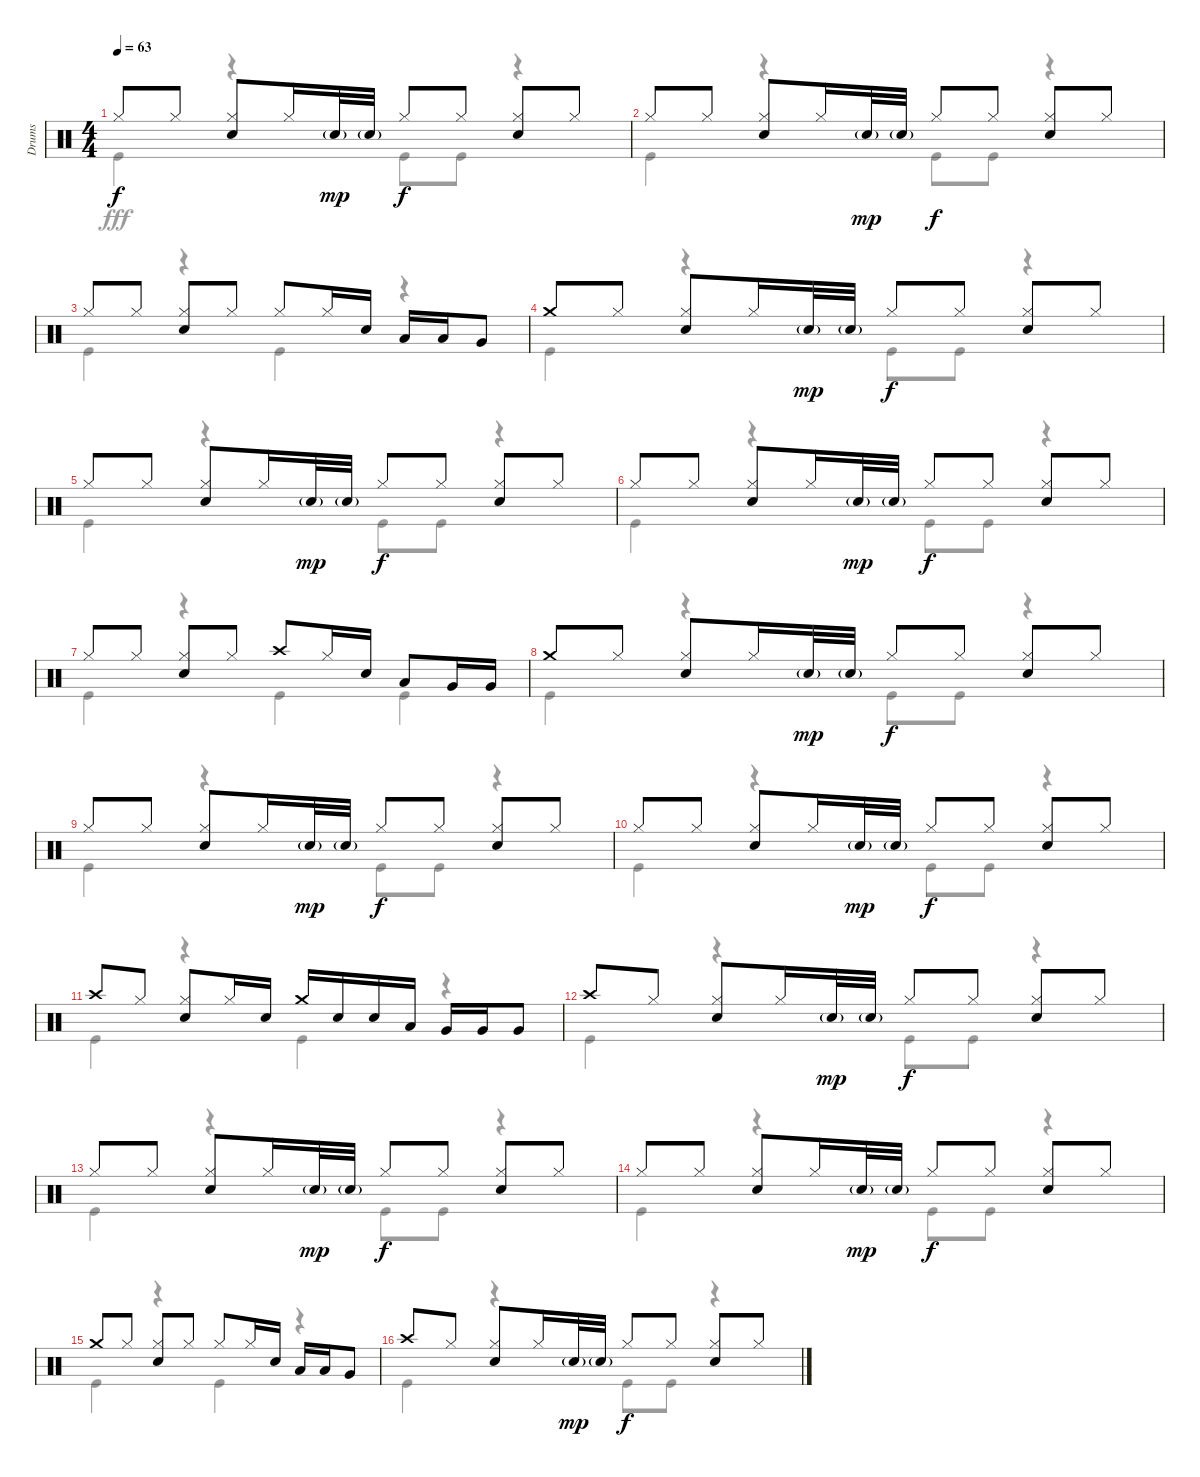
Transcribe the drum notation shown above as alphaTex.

\track ("Drums" "Drums") {instrument percussion}
\staff {score}
\articulation defaults
\voice
\ts (4 4)
\tempo 63
\clef neutral
\ks c "Hi-Hat (closed)".8{dy f} "Hi-Hat (closed)".8
("Hi-Hat (closed)" "Snare (hit) 2").8 "Hi-Hat (closed)".16 "Snare (hit) 2"{g}.32{dy mp} "Snare (hit) 2"{g}.32 "Hi-Hat (closed)".8{dy f} "Hi-Hat (closed)".8 ("Hi-Hat (closed)" "Snare (hit) 2").8 "Hi-Hat (closed)".8 |
"Hi-Hat (closed)".8 "Hi-Hat (closed)".8 ("Hi-Hat (closed)" "Snare (hit) 2").8 "Hi-Hat (closed)".16 "Snare (hit) 2"{g}.32{dy mp} "Snare (hit) 2"{g}.32 "Hi-Hat (closed)".8{dy f} "Hi-Hat (closed)".8 ("Hi-Hat (closed)" "Snare (hit) 2").8 "Hi-Hat (closed)".8 |
"Hi-Hat (closed)".8 "Hi-Hat (closed)".8 ("Hi-Hat (closed)" "Snare (hit) 2").8 "Hi-Hat (closed)".8 "Hi-Hat (closed)".8 "Hi-Hat (closed)".16 "Snare (hit) 2".16 "Low Tom (hit)".16 "Low Tom (hit)".16 "Very Low Tom (hit)".8 |
"Crash medium (hit)".8 "Hi-Hat (closed)".8 ("Hi-Hat (closed)" "Snare (hit) 2").8 "Hi-Hat (closed)".16 "Snare (hit) 2"{g}.32{dy mp} "Snare (hit) 2"{g}.32 "Hi-Hat (closed)".8{dy f} "Hi-Hat (closed)".8 ("Hi-Hat (closed)" "Snare (hit) 2").8 "Hi-Hat (closed)".8 |
"Hi-Hat (closed)".8 "Hi-Hat (closed)".8 ("Hi-Hat (closed)" "Snare (hit) 2").8 "Hi-Hat (closed)".16 "Snare (hit) 2"{g}.32{dy mp} "Snare (hit) 2"{g}.32 "Hi-Hat (closed)".8{dy f} "Hi-Hat (closed)".8 ("Hi-Hat (closed)" "Snare (hit) 2").8 "Hi-Hat (closed)".8 |
"Hi-Hat (closed)".8 "Hi-Hat (closed)".8 ("Hi-Hat (closed)" "Snare (hit) 2").8 "Hi-Hat (closed)".16 "Snare (hit) 2"{g}.32{dy mp} "Snare (hit) 2"{g}.32 "Hi-Hat (closed)".8{dy f} "Hi-Hat (closed)".8 ("Hi-Hat (closed)" "Snare (hit) 2").8 "Hi-Hat (closed)".8 |
"Hi-Hat (closed)".8 "Hi-Hat (closed)".8 ("Hi-Hat (closed)" "Snare (hit) 2").8 "Hi-Hat (closed)".8 "Crash high (hit)".8 "Hi-Hat (closed)".16 "Snare (hit) 2".16 "Low Tom (hit)".8 "Very Low Tom (hit)".16 "Very Low Tom (hit)".16 |
"Crash medium (hit)".8 "Hi-Hat (closed)".8 ("Hi-Hat (closed)" "Snare (hit) 2").8 "Hi-Hat (closed)".16 "Snare (hit) 2"{g}.32{dy mp} "Snare (hit) 2"{g}.32 "Hi-Hat (closed)".8{dy f} "Hi-Hat (closed)".8 ("Hi-Hat (closed)" "Snare (hit) 2").8 "Hi-Hat (closed)".8 |
"Hi-Hat (closed)".8 "Hi-Hat (closed)".8 ("Hi-Hat (closed)" "Snare (hit) 2").8 "Hi-Hat (closed)".16 "Snare (hit) 2"{g}.32{dy mp} "Snare (hit) 2"{g}.32 "Hi-Hat (closed)".8{dy f} "Hi-Hat (closed)".8 ("Hi-Hat (closed)" "Snare (hit) 2").8 "Hi-Hat (closed)".8 |
"Hi-Hat (closed)".8 "Hi-Hat (closed)".8 ("Hi-Hat (closed)" "Snare (hit) 2").8 "Hi-Hat (closed)".16 "Snare (hit) 2"{g}.32{dy mp} "Snare (hit) 2"{g}.32 "Hi-Hat (closed)".8{dy f} "Hi-Hat (closed)".8 ("Hi-Hat (closed)" "Snare (hit) 2").8 "Hi-Hat (closed)".8 |
"Crash high (hit)".8 "Hi-Hat (closed)".8 ("Hi-Hat (closed)" "Snare (hit) 2").8 "Hi-Hat (closed)".16 "Snare (hit) 2".16 "Crash medium (hit)".16 "Snare (hit) 2".16 "Snare (hit) 2".16 "Low Tom (hit)".16 "Very Low Tom (hit)".16 "Very Low Tom (hit)".16 "Very Low Tom (hit)".8 |
"Crash high (hit)".8 "Hi-Hat (closed)".8 ("Hi-Hat (closed)" "Snare (hit) 2").8 "Hi-Hat (closed)".16 "Snare (hit) 2"{g}.32{dy mp} "Snare (hit) 2"{g}.32 "Hi-Hat (closed)".8{dy f} "Hi-Hat (closed)".8 ("Hi-Hat (closed)" "Snare (hit) 2").8 "Hi-Hat (closed)".8 |
"Hi-Hat (closed)".8 "Hi-Hat (closed)".8 ("Hi-Hat (closed)" "Snare (hit) 2").8 "Hi-Hat (closed)".16 "Snare (hit) 2"{g}.32{dy mp} "Snare (hit) 2"{g}.32 "Hi-Hat (closed)".8{dy f} "Hi-Hat (closed)".8 ("Hi-Hat (closed)" "Snare (hit) 2").8 "Hi-Hat (closed)".8 |
"Hi-Hat (closed)".8 "Hi-Hat (closed)".8 ("Hi-Hat (closed)" "Snare (hit) 2").8 "Hi-Hat (closed)".16 "Snare (hit) 2"{g}.32{dy mp} "Snare (hit) 2"{g}.32 "Hi-Hat (closed)".8{dy f} "Hi-Hat (closed)".8 ("Hi-Hat (closed)" "Snare (hit) 2").8 "Hi-Hat (closed)".8 |
"Crash medium (hit)".8 "Hi-Hat (closed)".8 ("Hi-Hat (closed)" "Snare (hit) 2").8 "Hi-Hat (closed)".8 "Hi-Hat (closed)".8 "Hi-Hat (closed)".16 "Snare (hit) 2".16 "Low Tom (hit)".16 "Low Tom (hit)".16 "Very Low Tom (hit)".8 |
"Crash high (hit)".8 "Hi-Hat (closed)".8 ("Hi-Hat (closed)" "Snare (hit) 2").8 "Hi-Hat (closed)".16 "Snare (hit) 2"{g}.32{dy mp} "Snare (hit) 2"{g}.32 "Hi-Hat (closed)".8{dy f} "Hi-Hat (closed)".8 ("Hi-Hat (closed)" "Snare (hit) 2").8 "Hi-Hat (closed)".8
\voice
\clef neutral
\ottava regular
\simile none
\ks c "Kick (hit)".4{dy fff}
r.4 "Kick (hit)".8 "Kick (hit)".8 r.4 |
"Kick (hit)".4 r.4 "Kick (hit)".8 "Kick (hit)".8 r.4 |
"Kick (hit)".4 r.4 "Kick (hit)".4 r.4 |
"Kick (hit)".4 r.4 "Kick (hit)".8 "Kick (hit)".8 r.4 |
"Kick (hit)".4 r.4 "Kick (hit)".8 "Kick (hit)".8 r.4 |
"Kick (hit)".4 r.4 "Kick (hit)".8 "Kick (hit)".8 r.4 |
"Kick (hit)".4 r.4 "Kick (hit)".4 "Kick (hit)".4 |
"Kick (hit)".4 r.4 "Kick (hit)".8 "Kick (hit)".8 r.4 |
"Kick (hit)".4 r.4 "Kick (hit)".8 "Kick (hit)".8 r.4 |
"Kick (hit)".4 r.4 "Kick (hit)".8 "Kick (hit)".8 r.4 |
"Kick (hit)".4 r.4 "Kick (hit)".4 r.4 |
"Kick (hit)".4 r.4 "Kick (hit)".8 "Kick (hit)".8 r.4 |
"Kick (hit)".4 r.4 "Kick (hit)".8 "Kick (hit)".8 r.4 |
"Kick (hit)".4 r.4 "Kick (hit)".8 "Kick (hit)".8 r.4 |
"Kick (hit)".4 r.4 "Kick (hit)".4 r.4 |
"Kick (hit)".4 r.4 "Kick (hit)".8 "Kick (hit)".8 r.4
